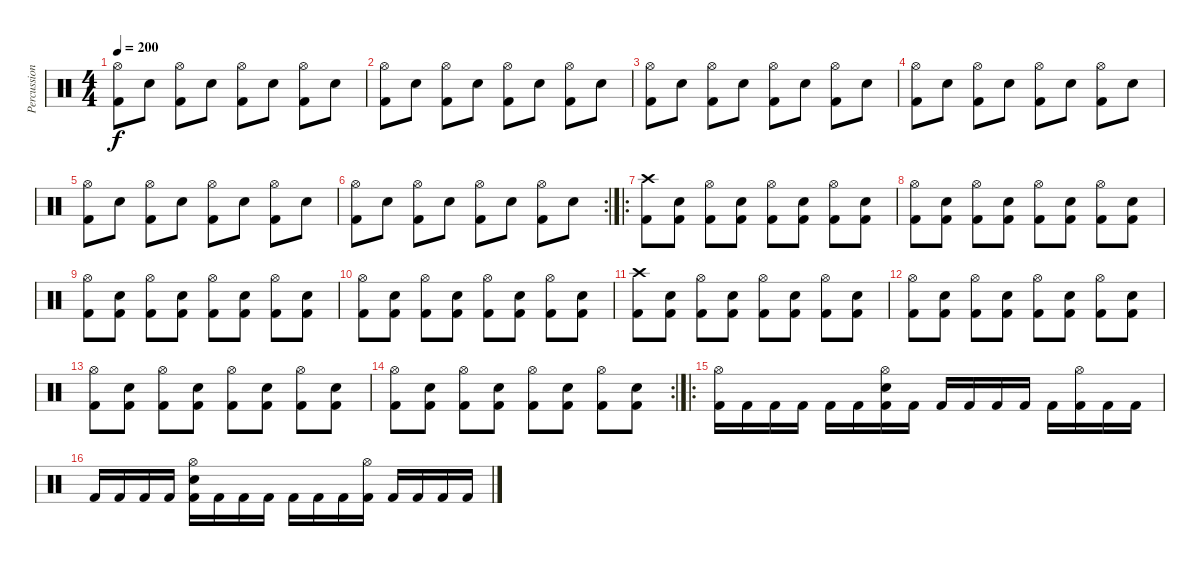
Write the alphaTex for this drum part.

\track ("Percussion" "Percussion") {instrument percussion}
\staff {score}
\articulation defaults
\ts (4 4)
\tempo 200
\clef neutral
\ks c
("Hi-Hat (open)" "Kick (hit) 2").8{dy f} "Electric Snare (hit)".8 ("Hi-Hat (open)" "Kick (hit) 2").8 "Electric Snare (hit)".8 ("Hi-Hat (open)" "Kick (hit) 2").8 "Electric Snare (hit)".8 ("Hi-Hat (open)" "Kick (hit) 2").8 "Electric Snare (hit)".8 |
("Hi-Hat (open)" "Kick (hit) 2").8 "Electric Snare (hit)".8 ("Hi-Hat (open)" "Kick (hit) 2").8 "Electric Snare (hit)".8 ("Hi-Hat (open)" "Kick (hit) 2").8 "Electric Snare (hit)".8 ("Hi-Hat (open)" "Kick (hit) 2").8 "Electric Snare (hit)".8 |
("Hi-Hat (open)" "Kick (hit) 2").8 "Electric Snare (hit)".8 ("Hi-Hat (open)" "Kick (hit) 2").8 "Electric Snare (hit)".8 ("Hi-Hat (open)" "Kick (hit) 2").8 "Electric Snare (hit)".8 ("Hi-Hat (open)" "Kick (hit) 2").8 "Electric Snare (hit)".8 |
("Hi-Hat (open)" "Kick (hit) 2").8 "Electric Snare (hit)".8 ("Hi-Hat (open)" "Kick (hit) 2").8 "Electric Snare (hit)".8 ("Hi-Hat (open)" "Kick (hit) 2").8 "Electric Snare (hit)".8 ("Hi-Hat (open)" "Kick (hit) 2").8 "Electric Snare (hit)".8 |
("Hi-Hat (open)" "Kick (hit) 2").8 "Electric Snare (hit)".8 ("Hi-Hat (open)" "Kick (hit) 2").8 "Electric Snare (hit)".8 ("Hi-Hat (open)" "Kick (hit) 2").8 "Electric Snare (hit)".8 ("Hi-Hat (open)" "Kick (hit) 2").8 "Electric Snare (hit)".8 |
\rc 2
("Hi-Hat (open)" "Kick (hit) 2").8 "Electric Snare (hit)".8 ("Hi-Hat (open)" "Kick (hit) 2").8 "Electric Snare (hit)".8 ("Hi-Hat (open)" "Kick (hit) 2").8 "Electric Snare (hit)".8 ("Hi-Hat (open)" "Kick (hit) 2").8 "Electric Snare (hit)".8 |
\ro
("Crash high (hit)" "Kick (hit) 2").8 ("Electric Snare (hit)" "Kick (hit) 2").8 ("Hi-Hat (open)" "Kick (hit) 2").8 ("Electric Snare (hit)" "Kick (hit) 2").8 ("Hi-Hat (open)" "Kick (hit) 2").8 ("Electric Snare (hit)" "Kick (hit) 2").8 ("Hi-Hat (open)" "Kick (hit) 2").8 ("Electric Snare (hit)" "Kick (hit) 2").8 |
("Hi-Hat (open)" "Kick (hit) 2").8 ("Electric Snare (hit)" "Kick (hit) 2").8 ("Hi-Hat (open)" "Kick (hit) 2").8 ("Electric Snare (hit)" "Kick (hit) 2").8 ("Hi-Hat (open)" "Kick (hit) 2").8 ("Electric Snare (hit)" "Kick (hit) 2").8 ("Hi-Hat (open)" "Kick (hit) 2").8 ("Electric Snare (hit)" "Kick (hit) 2").8 |
("Hi-Hat (open)" "Kick (hit) 2").8 ("Electric Snare (hit)" "Kick (hit) 2").8 ("Hi-Hat (open)" "Kick (hit) 2").8 ("Electric Snare (hit)" "Kick (hit) 2").8 ("Hi-Hat (open)" "Kick (hit) 2").8 ("Electric Snare (hit)" "Kick (hit) 2").8 ("Hi-Hat (open)" "Kick (hit) 2").8 ("Electric Snare (hit)" "Kick (hit) 2").8 |
("Hi-Hat (open)" "Kick (hit) 2").8 ("Electric Snare (hit)" "Kick (hit) 2").8 ("Hi-Hat (open)" "Kick (hit) 2").8 ("Electric Snare (hit)" "Kick (hit) 2").8 ("Hi-Hat (open)" "Kick (hit) 2").8 ("Electric Snare (hit)" "Kick (hit) 2").8 ("Hi-Hat (open)" "Kick (hit) 2").8 ("Electric Snare (hit)" "Kick (hit) 2").8 |
("Crash high (hit)" "Kick (hit) 2").8 ("Electric Snare (hit)" "Kick (hit) 2").8 ("Hi-Hat (open)" "Kick (hit) 2").8 ("Electric Snare (hit)" "Kick (hit) 2").8 ("Hi-Hat (open)" "Kick (hit) 2").8 ("Electric Snare (hit)" "Kick (hit) 2").8 ("Hi-Hat (open)" "Kick (hit) 2").8 ("Electric Snare (hit)" "Kick (hit) 2").8 |
("Hi-Hat (open)" "Kick (hit) 2").8 ("Electric Snare (hit)" "Kick (hit) 2").8 ("Hi-Hat (open)" "Kick (hit) 2").8 ("Electric Snare (hit)" "Kick (hit) 2").8 ("Hi-Hat (open)" "Kick (hit) 2").8 ("Electric Snare (hit)" "Kick (hit) 2").8 ("Hi-Hat (open)" "Kick (hit) 2").8 ("Electric Snare (hit)" "Kick (hit) 2").8 |
("Hi-Hat (open)" "Kick (hit) 2").8 ("Electric Snare (hit)" "Kick (hit) 2").8 ("Hi-Hat (open)" "Kick (hit) 2").8 ("Electric Snare (hit)" "Kick (hit) 2").8 ("Hi-Hat (open)" "Kick (hit) 2").8 ("Electric Snare (hit)" "Kick (hit) 2").8 ("Hi-Hat (open)" "Kick (hit) 2").8 ("Electric Snare (hit)" "Kick (hit) 2").8 |
\rc 2
("Hi-Hat (open)" "Kick (hit) 2").8 ("Electric Snare (hit)" "Kick (hit) 2").8 ("Hi-Hat (open)" "Kick (hit) 2").8 ("Electric Snare (hit)" "Kick (hit) 2").8 ("Hi-Hat (open)" "Kick (hit) 2").8 ("Electric Snare (hit)" "Kick (hit) 2").8 ("Hi-Hat (open)" "Kick (hit) 2").8 ("Electric Snare (hit)" "Kick (hit) 2").8 |
\ro
("Hi-Hat (open)" "Kick (hit) 2").16 "Kick (hit) 2".16 "Kick (hit) 2".16 "Kick (hit) 2".16 "Kick (hit) 2".16 "Kick (hit) 2".16 ("Hi-Hat (open)" "Electric Snare (hit)" "Kick (hit) 2").16 "Kick (hit) 2".16 "Kick (hit) 2".16 "Kick (hit) 2".16 "Kick (hit) 2".16 "Kick (hit) 2".16 "Kick (hit) 2".16 ("Hi-Hat (open)" "Kick (hit) 2").16 "Kick (hit) 2".16 "Kick (hit) 2".16 |
"Kick (hit) 2".16 "Kick (hit) 2".16 "Kick (hit) 2".16 "Kick (hit) 2".16 ("Hi-Hat (open)" "Electric Snare (hit)" "Kick (hit) 2").16 "Kick (hit) 2".16 "Kick (hit) 2".16 "Kick (hit) 2".16 "Kick (hit) 2".16 "Kick (hit) 2".16 "Kick (hit) 2".16 ("Hi-Hat (open)" "Kick (hit) 2").16 "Kick (hit) 2".16 "Kick (hit) 2".16 "Kick (hit) 2".16 "Kick (hit) 2".16
